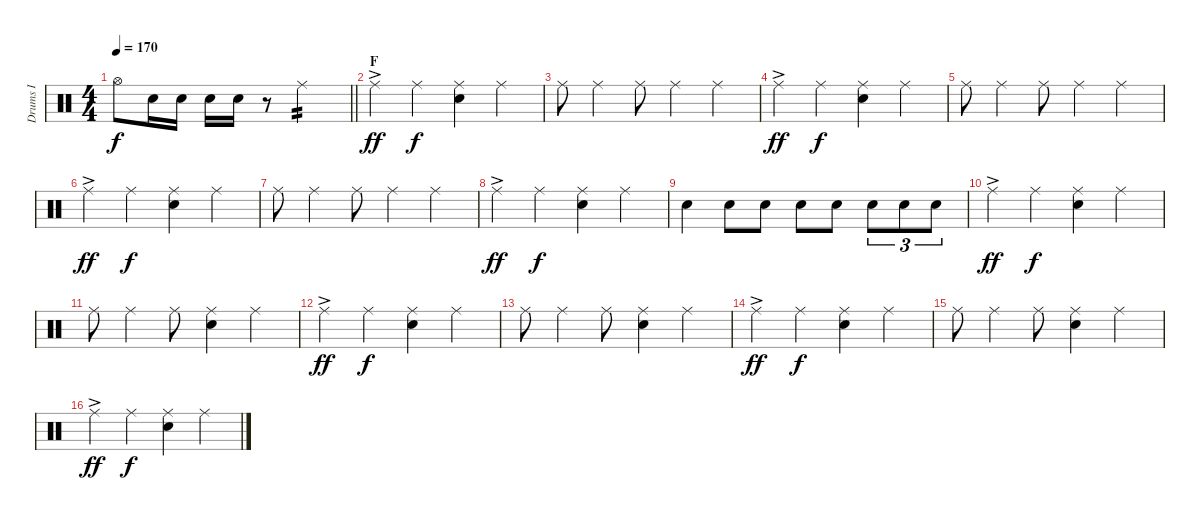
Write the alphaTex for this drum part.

\track ("Drums I" "Drums I") {instrument percussion}
\staff {score}
\articulation defaults
\ts (4 4)
\section ("" "")
\tempo 170
\clef neutral
\barLineRight lightlight
\ks c "Hi-Hat (open)".8{dy f} "Snare (hit) 2".16 "Snare (hit) 2".16 "Snare (hit) 2".16 "Snare (hit) 2".16
r.8 "Ride (middle)".2{tp 2} |
\section ("" "F")
"Ride (middle)"{ac}.4{dy ff} "Ride (middle)".4{dy f} ("Ride (middle)" "Snare (hit) 2").4 "Ride (middle)".4 |
"Ride (middle)".8 "Ride (middle)".4 "Ride (middle)".8 "Ride (middle)".4 "Ride (middle)".4 |
"Ride (middle)"{ac}.4{dy ff} "Ride (middle)".4{dy f} ("Ride (middle)" "Snare (hit) 2").4 "Ride (middle)".4 |
"Ride (middle)".8 "Ride (middle)".4 "Ride (middle)".8 "Ride (middle)".4 "Ride (middle)".4 |
"Ride (middle)"{ac}.4{dy ff} "Ride (middle)".4{dy f} ("Ride (middle)" "Snare (hit) 2").4 "Ride (middle)".4 |
"Ride (middle)".8 "Ride (middle)".4 "Ride (middle)".8 "Ride (middle)".4 "Ride (middle)".4 |
"Ride (middle)"{ac}.4{dy ff} "Ride (middle)".4{dy f} ("Ride (middle)" "Snare (hit) 2").4 "Ride (middle)".4 |
"Snare (hit) 2".4 "Snare (hit) 2".8 "Snare (hit) 2".8 "Snare (hit) 2".8 "Snare (hit) 2".8 "Snare (hit) 2".8{tu (3 2)} "Snare (hit) 2".8{tu (3 2)} "Snare (hit) 2".8{tu (3 2)} |
"Ride (middle)"{ac}.4{dy ff} "Ride (middle)".4{dy f} ("Ride (middle)" "Snare (hit) 2").4 "Ride (middle)".4 |
"Ride (middle)".8 "Ride (middle)".4 "Ride (middle)".8 ("Ride (middle)" "Snare (hit) 2").4 "Ride (middle)".4 |
"Ride (middle)"{ac}.4{dy ff} "Ride (middle)".4{dy f} ("Ride (middle)" "Snare (hit) 2").4 "Ride (middle)".4 |
"Ride (middle)".8 "Ride (middle)".4 "Ride (middle)".8 ("Ride (middle)" "Snare (hit) 2").4 "Ride (middle)".4 |
"Ride (middle)"{ac}.4{dy ff} "Ride (middle)".4{dy f} ("Ride (middle)" "Snare (hit) 2").4 "Ride (middle)".4 |
"Ride (middle)".8 "Ride (middle)".4 "Ride (middle)".8 ("Ride (middle)" "Snare (hit) 2").4 "Ride (middle)".4 |
"Ride (middle)"{ac}.4{dy ff} "Ride (middle)".4{dy f} ("Ride (middle)" "Snare (hit) 2").4 "Ride (middle)".4
